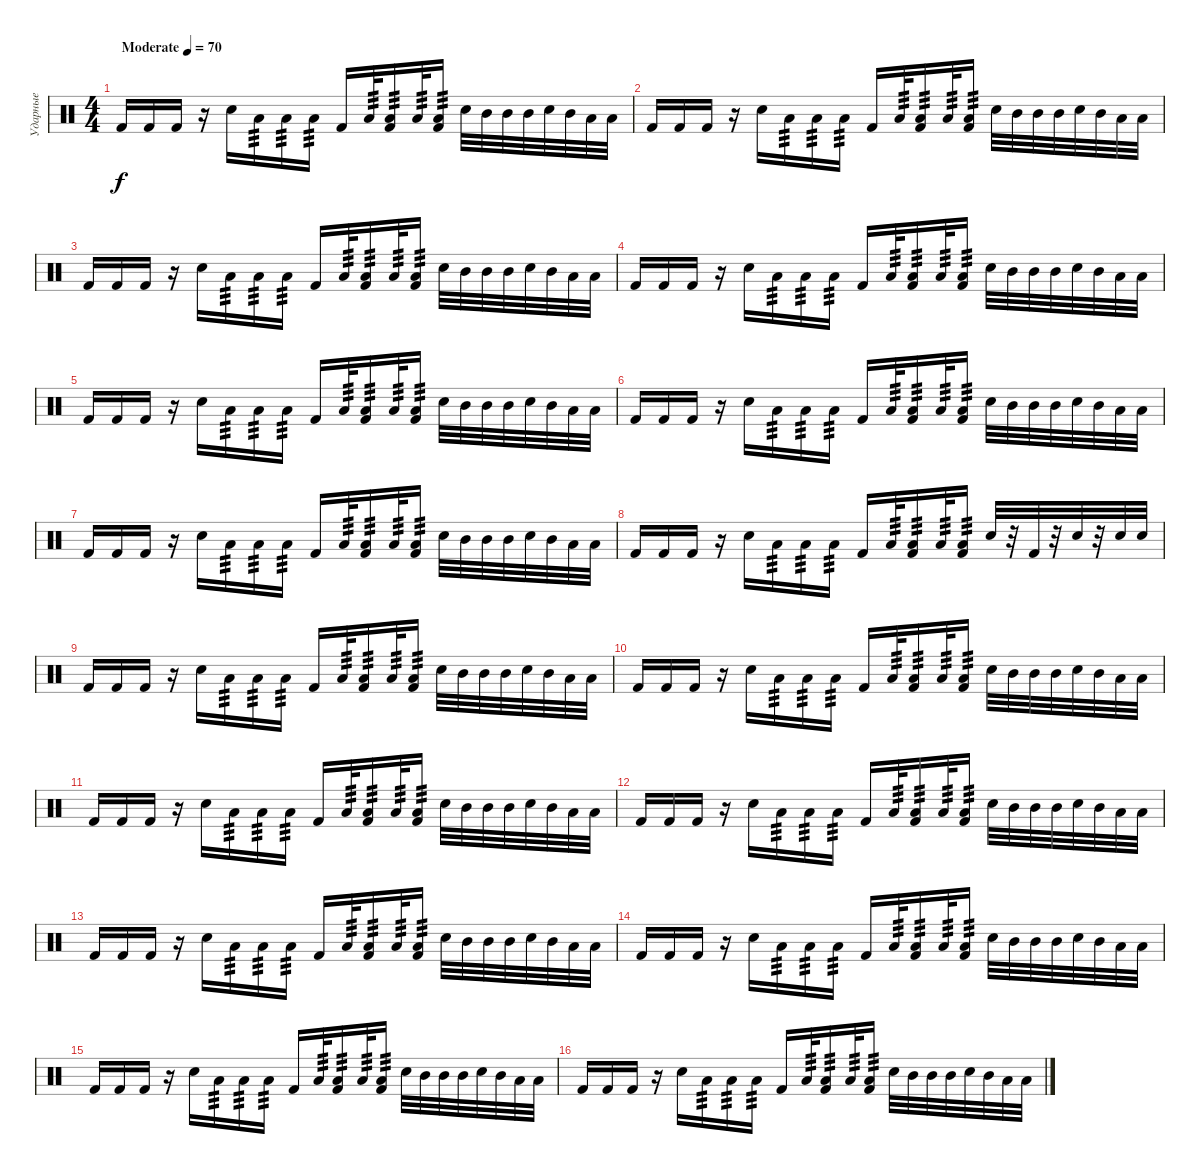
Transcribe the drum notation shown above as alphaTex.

\track ("Ударные" "Ударные") {instrument percussion}
\staff {score}
\articulation defaults
\ts (4 4)
\tempo (70 "Moderate")
\clef neutral
\ks c "Kick (hit) 2".16{dy f} "Kick (hit) 2".16 "Kick (hit) 2".16
r.16 "Electric Snare (hit)".16 "Low Floor Tom (hit)".16{tp 3} "Low Floor Tom (hit)".16{tp 3} "Low Floor Tom (hit)".16{tp 3} "Kick (hit) 2".16 "Low Floor Tom (hit)".32{tp 3} ("Low Floor Tom (hit)" "Kick (hit) 2").16{tp 3} "Low Floor Tom (hit)".32{tp 3} ("Low Floor Tom (hit)" "Kick (hit) 2").16{tp 3} "Electric Snare (hit)".32 "Mid Tom (hit)".32 "Mid Tom (hit)".32 "Mid Tom (hit)".32 "Electric Snare (hit)".32 "Mid Tom (hit)".32 "Low Floor Tom (hit)".32 "Low Floor Tom (hit)".32 |
"Kick (hit) 2".16 "Kick (hit) 2".16 "Kick (hit) 2".16 r.16 "Electric Snare (hit)".16 "Low Floor Tom (hit)".16{tp 3} "Low Floor Tom (hit)".16{tp 3} "Low Floor Tom (hit)".16{tp 3} "Kick (hit) 2".16 "Low Floor Tom (hit)".32{tp 3} ("Low Floor Tom (hit)" "Kick (hit) 2").16{tp 3} "Low Floor Tom (hit)".32{tp 3} ("Low Floor Tom (hit)" "Kick (hit) 2").16{tp 3} "Electric Snare (hit)".32 "Mid Tom (hit)".32 "Mid Tom (hit)".32 "Mid Tom (hit)".32 "Electric Snare (hit)".32 "Mid Tom (hit)".32 "Low Floor Tom (hit)".32 "Low Floor Tom (hit)".32 |
"Kick (hit) 2".16 "Kick (hit) 2".16 "Kick (hit) 2".16 r.16 "Electric Snare (hit)".16 "Low Floor Tom (hit)".16{tp 3} "Low Floor Tom (hit)".16{tp 3} "Low Floor Tom (hit)".16{tp 3} "Kick (hit) 2".16 "Low Floor Tom (hit)".32{tp 3} ("Low Floor Tom (hit)" "Kick (hit) 2").16{tp 3} "Low Floor Tom (hit)".32{tp 3} ("Low Floor Tom (hit)" "Kick (hit) 2").16{tp 3} "Electric Snare (hit)".32 "Mid Tom (hit)".32 "Mid Tom (hit)".32 "Mid Tom (hit)".32 "Electric Snare (hit)".32 "Mid Tom (hit)".32 "Low Floor Tom (hit)".32 "Low Floor Tom (hit)".32 |
"Kick (hit) 2".16 "Kick (hit) 2".16 "Kick (hit) 2".16 r.16 "Electric Snare (hit)".16 "Low Floor Tom (hit)".16{tp 3} "Low Floor Tom (hit)".16{tp 3} "Low Floor Tom (hit)".16{tp 3} "Kick (hit) 2".16 "Low Floor Tom (hit)".32{tp 3} ("Low Floor Tom (hit)" "Kick (hit) 2").16{tp 3} "Low Floor Tom (hit)".32{tp 3} ("Low Floor Tom (hit)" "Kick (hit) 2").16{tp 3} "Electric Snare (hit)".32 "Mid Tom (hit)".32 "Mid Tom (hit)".32 "Mid Tom (hit)".32 "Electric Snare (hit)".32 "Mid Tom (hit)".32 "Low Floor Tom (hit)".32 "Low Floor Tom (hit)".32 |
"Kick (hit) 2".16 "Kick (hit) 2".16 "Kick (hit) 2".16 r.16 "Electric Snare (hit)".16 "Low Floor Tom (hit)".16{tp 3} "Low Floor Tom (hit)".16{tp 3} "Low Floor Tom (hit)".16{tp 3} "Kick (hit) 2".16 "Low Floor Tom (hit)".32{tp 3} ("Low Floor Tom (hit)" "Kick (hit) 2").16{tp 3} "Low Floor Tom (hit)".32{tp 3} ("Low Floor Tom (hit)" "Kick (hit) 2").16{tp 3} "Electric Snare (hit)".32 "Mid Tom (hit)".32 "Mid Tom (hit)".32 "Mid Tom (hit)".32 "Electric Snare (hit)".32 "Mid Tom (hit)".32 "Low Floor Tom (hit)".32 "Low Floor Tom (hit)".32 |
"Kick (hit) 2".16 "Kick (hit) 2".16 "Kick (hit) 2".16 r.16 "Electric Snare (hit)".16 "Low Floor Tom (hit)".16{tp 3} "Low Floor Tom (hit)".16{tp 3} "Low Floor Tom (hit)".16{tp 3} "Kick (hit) 2".16 "Low Floor Tom (hit)".32{tp 3} ("Low Floor Tom (hit)" "Kick (hit) 2").16{tp 3} "Low Floor Tom (hit)".32{tp 3} ("Low Floor Tom (hit)" "Kick (hit) 2").16{tp 3} "Electric Snare (hit)".32 "Mid Tom (hit)".32 "Mid Tom (hit)".32 "Mid Tom (hit)".32 "Electric Snare (hit)".32 "Mid Tom (hit)".32 "Low Floor Tom (hit)".32 "Low Floor Tom (hit)".32 |
"Kick (hit) 2".16 "Kick (hit) 2".16 "Kick (hit) 2".16 r.16 "Electric Snare (hit)".16 "Low Floor Tom (hit)".16{tp 3} "Low Floor Tom (hit)".16{tp 3} "Low Floor Tom (hit)".16{tp 3} "Kick (hit) 2".16 "Low Floor Tom (hit)".32{tp 3} ("Low Floor Tom (hit)" "Kick (hit) 2").16{tp 3} "Low Floor Tom (hit)".32{tp 3} ("Low Floor Tom (hit)" "Kick (hit) 2").16{tp 3} "Electric Snare (hit)".32 "Mid Tom (hit)".32 "Mid Tom (hit)".32 "Mid Tom (hit)".32 "Electric Snare (hit)".32 "Mid Tom (hit)".32 "Low Floor Tom (hit)".32 "Low Floor Tom (hit)".32 |
"Kick (hit) 2".16 "Kick (hit) 2".16 "Kick (hit) 2".16 r.16 "Electric Snare (hit)".16 "Low Floor Tom (hit)".16{tp 3} "Low Floor Tom (hit)".16{tp 3} "Low Floor Tom (hit)".16{tp 3} "Kick (hit) 2".16 "Low Floor Tom (hit)".32{tp 3} ("Low Floor Tom (hit)" "Kick (hit) 2").16{tp 3} "Low Floor Tom (hit)".32{tp 3} ("Low Floor Tom (hit)" "Kick (hit) 2").16{tp 3} "Electric Snare (hit)".32 r.32 "Kick (hit) 2".32 r.32 "Electric Snare (hit)".32 r.32 "Electric Snare (hit)".32 "Electric Snare (hit)".32 |
"Kick (hit) 2".16 "Kick (hit) 2".16 "Kick (hit) 2".16 r.16 "Electric Snare (hit)".16 "Low Floor Tom (hit)".16{tp 3} "Low Floor Tom (hit)".16{tp 3} "Low Floor Tom (hit)".16{tp 3} "Kick (hit) 2".16 "Low Floor Tom (hit)".32{tp 3} ("Low Floor Tom (hit)" "Kick (hit) 2").16{tp 3} "Low Floor Tom (hit)".32{tp 3} ("Low Floor Tom (hit)" "Kick (hit) 2").16{tp 3} "Electric Snare (hit)".32 "Mid Tom (hit)".32 "Mid Tom (hit)".32 "Mid Tom (hit)".32 "Electric Snare (hit)".32 "Mid Tom (hit)".32 "Low Floor Tom (hit)".32 "Low Floor Tom (hit)".32 |
"Kick (hit) 2".16 "Kick (hit) 2".16 "Kick (hit) 2".16 r.16 "Electric Snare (hit)".16 "Low Floor Tom (hit)".16{tp 3} "Low Floor Tom (hit)".16{tp 3} "Low Floor Tom (hit)".16{tp 3} "Kick (hit) 2".16 "Low Floor Tom (hit)".32{tp 3} ("Low Floor Tom (hit)" "Kick (hit) 2").16{tp 3} "Low Floor Tom (hit)".32{tp 3} ("Low Floor Tom (hit)" "Kick (hit) 2").16{tp 3} "Electric Snare (hit)".32 "Mid Tom (hit)".32 "Mid Tom (hit)".32 "Mid Tom (hit)".32 "Electric Snare (hit)".32 "Mid Tom (hit)".32 "Low Floor Tom (hit)".32 "Low Floor Tom (hit)".32 |
"Kick (hit) 2".16 "Kick (hit) 2".16 "Kick (hit) 2".16 r.16 "Electric Snare (hit)".16 "Low Floor Tom (hit)".16{tp 3} "Low Floor Tom (hit)".16{tp 3} "Low Floor Tom (hit)".16{tp 3} "Kick (hit) 2".16 "Low Floor Tom (hit)".32{tp 3} ("Low Floor Tom (hit)" "Kick (hit) 2").16{tp 3} "Low Floor Tom (hit)".32{tp 3} ("Low Floor Tom (hit)" "Kick (hit) 2").16{tp 3} "Electric Snare (hit)".32 "Mid Tom (hit)".32 "Mid Tom (hit)".32 "Mid Tom (hit)".32 "Electric Snare (hit)".32 "Mid Tom (hit)".32 "Low Floor Tom (hit)".32 "Low Floor Tom (hit)".32 |
"Kick (hit) 2".16 "Kick (hit) 2".16 "Kick (hit) 2".16 r.16 "Electric Snare (hit)".16 "Low Floor Tom (hit)".16{tp 3} "Low Floor Tom (hit)".16{tp 3} "Low Floor Tom (hit)".16{tp 3} "Kick (hit) 2".16 "Low Floor Tom (hit)".32{tp 3} ("Low Floor Tom (hit)" "Kick (hit) 2").16{tp 3} "Low Floor Tom (hit)".32{tp 3} ("Low Floor Tom (hit)" "Kick (hit) 2").16{tp 3} "Electric Snare (hit)".32 "Mid Tom (hit)".32 "Mid Tom (hit)".32 "Mid Tom (hit)".32 "Electric Snare (hit)".32 "Mid Tom (hit)".32 "Low Floor Tom (hit)".32 "Low Floor Tom (hit)".32 |
"Kick (hit) 2".16 "Kick (hit) 2".16 "Kick (hit) 2".16 r.16 "Electric Snare (hit)".16 "Low Floor Tom (hit)".16{tp 3} "Low Floor Tom (hit)".16{tp 3} "Low Floor Tom (hit)".16{tp 3} "Kick (hit) 2".16 "Low Floor Tom (hit)".32{tp 3} ("Low Floor Tom (hit)" "Kick (hit) 2").16{tp 3} "Low Floor Tom (hit)".32{tp 3} ("Low Floor Tom (hit)" "Kick (hit) 2").16{tp 3} "Electric Snare (hit)".32 "Mid Tom (hit)".32 "Mid Tom (hit)".32 "Mid Tom (hit)".32 "Electric Snare (hit)".32 "Mid Tom (hit)".32 "Low Floor Tom (hit)".32 "Low Floor Tom (hit)".32 |
"Kick (hit) 2".16 "Kick (hit) 2".16 "Kick (hit) 2".16 r.16 "Electric Snare (hit)".16 "Low Floor Tom (hit)".16{tp 3} "Low Floor Tom (hit)".16{tp 3} "Low Floor Tom (hit)".16{tp 3} "Kick (hit) 2".16 "Low Floor Tom (hit)".32{tp 3} ("Low Floor Tom (hit)" "Kick (hit) 2").16{tp 3} "Low Floor Tom (hit)".32{tp 3} ("Low Floor Tom (hit)" "Kick (hit) 2").16{tp 3} "Electric Snare (hit)".32 "Mid Tom (hit)".32 "Mid Tom (hit)".32 "Mid Tom (hit)".32 "Electric Snare (hit)".32 "Mid Tom (hit)".32 "Low Floor Tom (hit)".32 "Low Floor Tom (hit)".32 |
"Kick (hit) 2".16 "Kick (hit) 2".16 "Kick (hit) 2".16 r.16 "Electric Snare (hit)".16 "Low Floor Tom (hit)".16{tp 3} "Low Floor Tom (hit)".16{tp 3} "Low Floor Tom (hit)".16{tp 3} "Kick (hit) 2".16 "Low Floor Tom (hit)".32{tp 3} ("Low Floor Tom (hit)" "Kick (hit) 2").16{tp 3} "Low Floor Tom (hit)".32{tp 3} ("Low Floor Tom (hit)" "Kick (hit) 2").16{tp 3} "Electric Snare (hit)".32 "Mid Tom (hit)".32 "Mid Tom (hit)".32 "Mid Tom (hit)".32 "Electric Snare (hit)".32 "Mid Tom (hit)".32 "Low Floor Tom (hit)".32 "Low Floor Tom (hit)".32 |
"Kick (hit) 2".16 "Kick (hit) 2".16 "Kick (hit) 2".16 r.16 "Electric Snare (hit)".16 "Low Floor Tom (hit)".16{tp 3} "Low Floor Tom (hit)".16{tp 3} "Low Floor Tom (hit)".16{tp 3} "Kick (hit) 2".16 "Low Floor Tom (hit)".32{tp 3} ("Low Floor Tom (hit)" "Kick (hit) 2").16{tp 3} "Low Floor Tom (hit)".32{tp 3} ("Low Floor Tom (hit)" "Kick (hit) 2").16{tp 3} "Electric Snare (hit)".32 "Mid Tom (hit)".32 "Mid Tom (hit)".32 "Mid Tom (hit)".32 "Electric Snare (hit)".32 "Mid Tom (hit)".32 "Low Floor Tom (hit)".32 "Low Floor Tom (hit)".32
